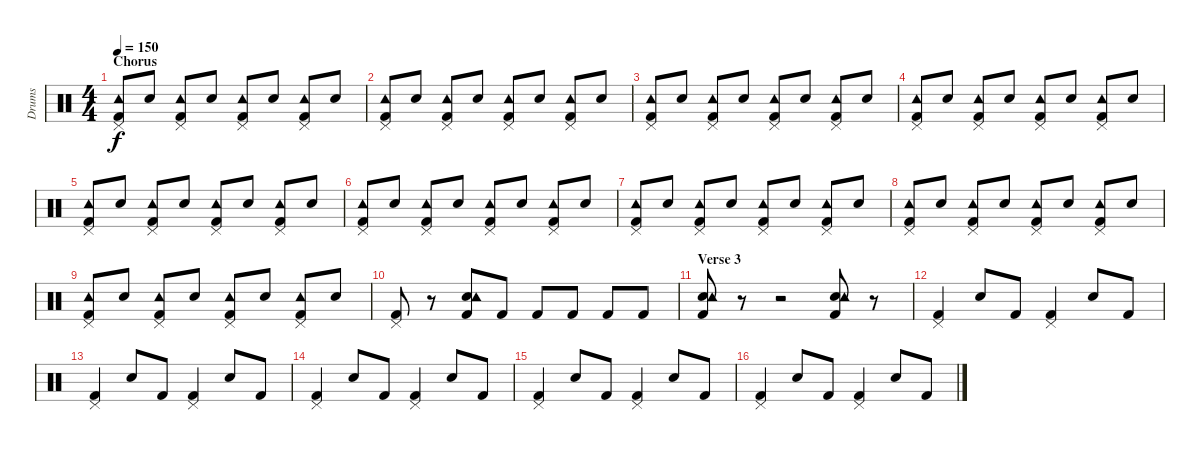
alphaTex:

\track ("Drums" "Drums") {instrument percussion}
\staff {score}
\articulation defaults
\ts (4 4)
\section ("" "Chorus")
\tempo 150
\clef neutral
\ks c
("Kick (hit) 2" "Pedal Hi-Hat (hit)" "Tambourine (hit)").8{dy f} "Snare (hit) 2".8 ("Kick (hit) 2" "Pedal Hi-Hat (hit)" "Tambourine (hit)").8 "Snare (hit) 2".8 ("Kick (hit) 2" "Pedal Hi-Hat (hit)" "Tambourine (hit)").8 "Snare (hit) 2".8 ("Kick (hit) 2" "Pedal Hi-Hat (hit)" "Tambourine (hit)").8 "Snare (hit) 2".8 |
("Kick (hit) 2" "Pedal Hi-Hat (hit)" "Tambourine (hit)").8 "Snare (hit) 2".8 ("Kick (hit) 2" "Pedal Hi-Hat (hit)" "Tambourine (hit)").8 "Snare (hit) 2".8 ("Kick (hit) 2" "Pedal Hi-Hat (hit)" "Tambourine (hit)").8 "Snare (hit) 2".8 ("Kick (hit) 2" "Pedal Hi-Hat (hit)" "Tambourine (hit)").8 "Snare (hit) 2".8 |
("Kick (hit) 2" "Pedal Hi-Hat (hit)" "Tambourine (hit)").8 "Snare (hit) 2".8 ("Kick (hit) 2" "Pedal Hi-Hat (hit)" "Tambourine (hit)").8 "Snare (hit) 2".8 ("Kick (hit) 2" "Pedal Hi-Hat (hit)" "Tambourine (hit)").8 "Snare (hit) 2".8 ("Kick (hit) 2" "Pedal Hi-Hat (hit)" "Tambourine (hit)").8 "Snare (hit) 2".8 |
("Kick (hit) 2" "Pedal Hi-Hat (hit)" "Tambourine (hit)").8 "Snare (hit) 2".8 ("Kick (hit) 2" "Pedal Hi-Hat (hit)" "Tambourine (hit)").8 "Snare (hit) 2".8 ("Kick (hit) 2" "Pedal Hi-Hat (hit)" "Tambourine (hit)").8 "Snare (hit) 2".8 ("Kick (hit) 2" "Pedal Hi-Hat (hit)" "Tambourine (hit)").8 "Snare (hit) 2".8 |
("Kick (hit) 2" "Pedal Hi-Hat (hit)" "Tambourine (hit)").8 "Snare (hit) 2".8 ("Kick (hit) 2" "Pedal Hi-Hat (hit)" "Tambourine (hit)").8 "Snare (hit) 2".8 ("Kick (hit) 2" "Pedal Hi-Hat (hit)" "Tambourine (hit)").8 "Snare (hit) 2".8 ("Kick (hit) 2" "Pedal Hi-Hat (hit)" "Tambourine (hit)").8 "Snare (hit) 2".8 |
("Kick (hit) 2" "Pedal Hi-Hat (hit)" "Tambourine (hit)").8 "Snare (hit) 2".8 ("Kick (hit) 2" "Pedal Hi-Hat (hit)" "Tambourine (hit)").8 "Snare (hit) 2".8 ("Kick (hit) 2" "Pedal Hi-Hat (hit)" "Tambourine (hit)").8 "Snare (hit) 2".8 ("Kick (hit) 2" "Pedal Hi-Hat (hit)" "Tambourine (hit)").8 "Snare (hit) 2".8 |
("Kick (hit) 2" "Pedal Hi-Hat (hit)" "Tambourine (hit)").8 "Snare (hit) 2".8 ("Kick (hit) 2" "Pedal Hi-Hat (hit)" "Tambourine (hit)").8 "Snare (hit) 2".8 ("Kick (hit) 2" "Pedal Hi-Hat (hit)" "Tambourine (hit)").8 "Snare (hit) 2".8 ("Kick (hit) 2" "Pedal Hi-Hat (hit)" "Tambourine (hit)").8 "Snare (hit) 2".8 |
("Kick (hit) 2" "Pedal Hi-Hat (hit)" "Tambourine (hit)").8 "Snare (hit) 2".8 ("Kick (hit) 2" "Pedal Hi-Hat (hit)" "Tambourine (hit)").8 "Snare (hit) 2".8 ("Kick (hit) 2" "Pedal Hi-Hat (hit)" "Tambourine (hit)").8 "Snare (hit) 2".8 ("Kick (hit) 2" "Pedal Hi-Hat (hit)" "Tambourine (hit)").8 "Snare (hit) 2".8 |
("Kick (hit) 2" "Pedal Hi-Hat (hit)" "Tambourine (hit)").8 "Snare (hit) 2".8 ("Kick (hit) 2" "Pedal Hi-Hat (hit)" "Tambourine (hit)").8 "Snare (hit) 2".8 ("Kick (hit) 2" "Pedal Hi-Hat (hit)" "Tambourine (hit)").8 "Snare (hit) 2".8 ("Kick (hit) 2" "Pedal Hi-Hat (hit)" "Tambourine (hit)").8 "Snare (hit) 2".8 |
("Kick (hit) 2" "Pedal Hi-Hat (hit)").8 r.8 ("Snare (hit) 2" "Kick (hit) 2" "Tambourine (hit)").8 "Kick (hit) 2".8 "Kick (hit) 2".8 "Kick (hit) 2".8 "Kick (hit) 2".8 "Kick (hit) 2".8 |
\section ("" "Verse 3")
("Snare (hit) 2" "Kick (hit) 2" "Tambourine (hit)").8 r.8 r.2 ("Snare (hit) 2" "Kick (hit) 2" "Tambourine (hit)").8 r.8 |
("Kick (hit) 2" "Pedal Hi-Hat (hit)").4 "Snare (hit) 2".8 "Kick (hit) 2".8 ("Kick (hit) 2" "Pedal Hi-Hat (hit)").4 "Snare (hit) 2".8 "Kick (hit) 2".8 |
("Kick (hit) 2" "Pedal Hi-Hat (hit)").4 "Snare (hit) 2".8 "Kick (hit) 2".8 ("Kick (hit) 2" "Pedal Hi-Hat (hit)").4 "Snare (hit) 2".8 "Kick (hit) 2".8 |
("Kick (hit) 2" "Pedal Hi-Hat (hit)").4 "Snare (hit) 2".8 "Kick (hit) 2".8 ("Kick (hit) 2" "Pedal Hi-Hat (hit)").4 "Snare (hit) 2".8 "Kick (hit) 2".8 |
("Kick (hit) 2" "Pedal Hi-Hat (hit)").4 "Snare (hit) 2".8 "Kick (hit) 2".8 ("Kick (hit) 2" "Pedal Hi-Hat (hit)").4 "Snare (hit) 2".8 "Kick (hit) 2".8 |
("Kick (hit) 2" "Pedal Hi-Hat (hit)").4 "Snare (hit) 2".8 "Kick (hit) 2".8 ("Kick (hit) 2" "Pedal Hi-Hat (hit)").4 "Snare (hit) 2".8 "Kick (hit) 2".8
